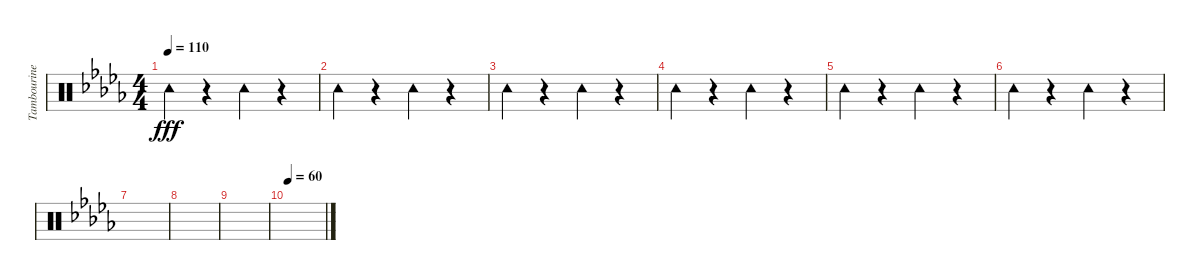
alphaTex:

\track ("Tambourine" "Tambourine") {instrument percussion}
\staff {score}
\articulation defaults
\ts (4 4)
\tempo 110
\clef neutral
\ks db "Tambourine (hit)".4{dy fff}
r.4 "Tambourine (hit)".4 r.4 |
"Tambourine (hit)".4 r.4 "Tambourine (hit)".4 r.4 |
"Tambourine (hit)".4 r.4 "Tambourine (hit)".4 r.4 |
"Tambourine (hit)".4 r.4 "Tambourine (hit)".4 r.4 |
"Tambourine (hit)".4 r.4 "Tambourine (hit)".4 r.4 |
"Tambourine (hit)".4 r.4 "Tambourine (hit)".4 r.4 |
|
|
|
\tempo 60
